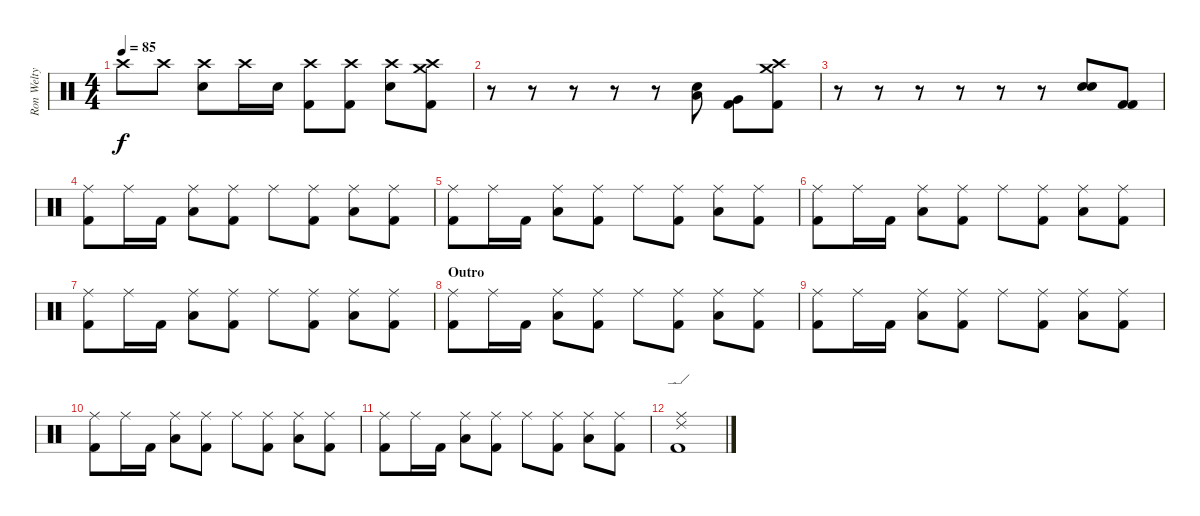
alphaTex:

\track ("Ron Welty - Drums" "Ron Welty ") {instrument percussion}
\staff {score}
\articulation defaults
\ts (4 4)
\tempo 85
\clef neutral
\ks c "Crash high (hit)".8{dy f} "Crash high (hit)".8
("Crash high (hit)" "Snare (hit) 2").8 "Crash high (hit)".16 "Snare (hit) 2".16 ("Crash high (hit)" "Kick (hit) 2").8 ("Crash high (hit)" "Kick (hit) 2").8 ("Crash high (hit)" "Snare (hit) 2").8 ("Crash high (hit)" "Crash medium (hit)" "Kick (hit) 2").8 |
r.8 r.8 r.8 r.8 r.8 ("Low Tom (hit)" "Snare (hit) 2").8 ("Very Low Tom (hit)" "Kick (hit) 2").8 ("Crash high (hit)" "Crash medium (hit)" "Kick (hit) 2").8 |
r.8 r.8 r.8 r.8 r.8 r.8 ("Snare (hit) 2" "Snare (hit) 2").8 ("Kick (hit) 2" "Kick (hit) 2").8 |
("Ride (middle)" "Kick (hit) 2").8 "Ride (middle)".16 "Kick (hit) 2".16 ("Ride (middle)" "Low Tom (hit)").8 ("Ride (middle)" "Kick (hit) 2").8 "Ride (middle)".8 ("Ride (middle)" "Kick (hit) 2").8 ("Ride (middle)" "Low Tom (hit)").8 ("Ride (middle)" "Kick (hit) 2").8 |
("Ride (middle)" "Kick (hit) 2").8 "Ride (middle)".16 "Kick (hit) 2".16 ("Ride (middle)" "Low Tom (hit)").8 ("Ride (middle)" "Kick (hit) 2").8 "Ride (middle)".8 ("Ride (middle)" "Kick (hit) 2").8 ("Ride (middle)" "Low Tom (hit)").8 ("Ride (middle)" "Kick (hit) 2").8 |
("Ride (middle)" "Kick (hit) 2").8 "Ride (middle)".16 "Kick (hit) 2".16 ("Ride (middle)" "Low Tom (hit)").8 ("Ride (middle)" "Kick (hit) 2").8 "Ride (middle)".8 ("Ride (middle)" "Kick (hit) 2").8 ("Ride (middle)" "Low Tom (hit)").8 ("Ride (middle)" "Kick (hit) 2").8 |
("Ride (middle)" "Kick (hit) 2").8 "Ride (middle)".16 "Kick (hit) 2".16 ("Ride (middle)" "Low Tom (hit)").8 ("Ride (middle)" "Kick (hit) 2").8 "Ride (middle)".8 ("Ride (middle)" "Kick (hit) 2").8 ("Ride (middle)" "Low Tom (hit)").8 ("Ride (middle)" "Kick (hit) 2").8 |
\section ("" "Outro")
("Ride (middle)" "Kick (hit) 2").8 "Ride (middle)".16 "Kick (hit) 2".16 ("Ride (middle)" "Low Tom (hit)").8 ("Ride (middle)" "Kick (hit) 2").8 "Ride (middle)".8 ("Ride (middle)" "Kick (hit) 2").8 ("Ride (middle)" "Low Tom (hit)").8 ("Ride (middle)" "Kick (hit) 2").8 |
("Ride (middle)" "Kick (hit) 2").8 "Ride (middle)".16 "Kick (hit) 2".16 ("Ride (middle)" "Low Tom (hit)").8 ("Ride (middle)" "Kick (hit) 2").8 "Ride (middle)".8 ("Ride (middle)" "Kick (hit) 2").8 ("Ride (middle)" "Low Tom (hit)").8 ("Ride (middle)" "Kick (hit) 2").8 |
("Ride (middle)" "Kick (hit) 2").8 "Ride (middle)".16 "Kick (hit) 2".16 ("Ride (middle)" "Low Tom (hit)").8 ("Ride (middle)" "Kick (hit) 2").8 "Ride (middle)".8 ("Ride (middle)" "Kick (hit) 2").8 ("Ride (middle)" "Low Tom (hit)").8 ("Ride (middle)" "Kick (hit) 2").8 |
("Ride (middle)" "Kick (hit) 2").8 "Ride (middle)".16 "Kick (hit) 2".16 ("Ride (middle)" "Low Tom (hit)").8 ("Ride (middle)" "Kick (hit) 2").8 "Ride (middle)".8 ("Ride (middle)" "Kick (hit) 2").8 ("Ride (middle)" "Low Tom (hit)").8 ("Ride (middle)" "Kick (hit) 2").8 |
("Ride (edge) 2" "Ride (middle)" "Kick (hit) 2").1
